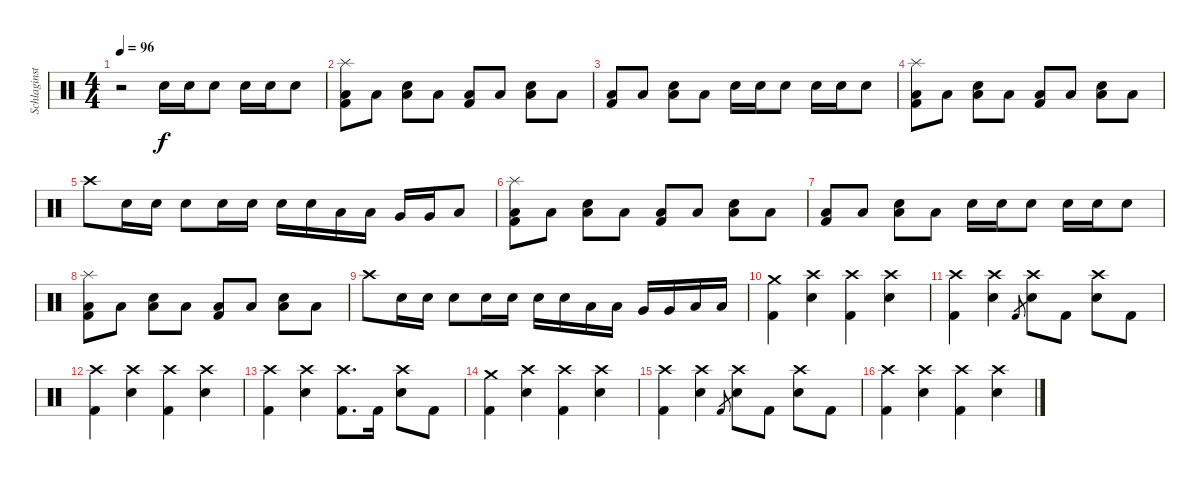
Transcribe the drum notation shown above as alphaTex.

\track ("Schlaginstrumente - Auswahl" "Schlaginst") {instrument percussion}
\staff {score}
\articulation defaults
\ts (4 4)
\tempo 96
\clef neutral
\ks c
r.2{dy f} "Electric Snare (hit)".16 "Electric Snare (hit)".16 "Electric Snare (hit)".8 "Electric Snare (hit)".16 "Electric Snare (hit)".16 "Electric Snare (hit)".8 |
("Splash (hit)" "Low Floor Tom (hit)" "Kick (hit) 2").8 "Low Floor Tom (hit)".8 ("Low Floor Tom (hit)" "Electric Snare (hit)").8 "Low Floor Tom (hit)".8 ("Low Floor Tom (hit)" "Kick (hit) 2").8 "Low Floor Tom (hit)".8 ("Low Floor Tom (hit)" "Electric Snare (hit)").8 "Low Floor Tom (hit)".8 |
("Low Floor Tom (hit)" "Kick (hit) 2").8 "Low Floor Tom (hit)".8 ("Low Floor Tom (hit)" "Electric Snare (hit)").8 "Low Floor Tom (hit)".8 "Electric Snare (hit)".16 "Electric Snare (hit)".16 "Electric Snare (hit)".8 "Electric Snare (hit)".16 "Electric Snare (hit)".16 "Electric Snare (hit)".8 |
("Splash (hit)" "Low Floor Tom (hit)" "Kick (hit) 2").8 "Low Floor Tom (hit)".8 ("Low Floor Tom (hit)" "Electric Snare (hit)").8 "Low Floor Tom (hit)".8 ("Low Floor Tom (hit)" "Kick (hit) 2").8 "Low Floor Tom (hit)".8 ("Low Floor Tom (hit)" "Electric Snare (hit)").8 "Low Floor Tom (hit)".8 |
"Crash high (hit)".8 "Electric Snare (hit)".16 "Electric Snare (hit)".16 "Electric Snare (hit)".8 "Electric Snare (hit)".16 "Electric Snare (hit)".16 "Electric Snare (hit)".16 "Electric Snare (hit)".16 "Low Tom (hit)".16 "Low Tom (hit)".16 "Very Low Tom (hit)".16 "Very Low Tom (hit)".16 "Low Floor Tom (hit)".8 |
("Splash (hit)" "Low Floor Tom (hit)" "Kick (hit) 2").8 "Low Floor Tom (hit)".8 ("Low Floor Tom (hit)" "Electric Snare (hit)").8 "Low Floor Tom (hit)".8 ("Low Floor Tom (hit)" "Kick (hit) 2").8 "Low Floor Tom (hit)".8 ("Low Floor Tom (hit)" "Electric Snare (hit)").8 "Low Floor Tom (hit)".8 |
("Low Floor Tom (hit)" "Kick (hit) 2").8 "Low Floor Tom (hit)".8 ("Low Floor Tom (hit)" "Electric Snare (hit)").8 "Low Floor Tom (hit)".8 "Electric Snare (hit)".16 "Electric Snare (hit)".16 "Electric Snare (hit)".8 "Electric Snare (hit)".16 "Electric Snare (hit)".16 "Electric Snare (hit)".8 |
("Splash (hit)" "Low Floor Tom (hit)" "Kick (hit) 2").8 "Low Floor Tom (hit)".8 ("Low Floor Tom (hit)" "Electric Snare (hit)").8 "Low Floor Tom (hit)".8 ("Low Floor Tom (hit)" "Kick (hit) 2").8 "Low Floor Tom (hit)".8 ("Low Floor Tom (hit)" "Electric Snare (hit)").8 "Low Floor Tom (hit)".8 |
"Crash high (hit)".8 "Electric Snare (hit)".16 "Electric Snare (hit)".16 "Electric Snare (hit)".8 "Electric Snare (hit)".16 "Electric Snare (hit)".16 "Electric Snare (hit)".16 "Electric Snare (hit)".16 "Low Tom (hit)".16 "Low Tom (hit)".16 "Very Low Tom (hit)".16 "Very Low Tom (hit)".16 "Low Floor Tom (hit)".16 "Low Floor Tom (hit)".16 |
("Crash medium (hit)" "Kick (hit) 2").4 ("Crash high (hit)" "Electric Snare (hit)").4 ("Crash high (hit)" "Kick (hit) 2").4 ("Crash high (hit)" "Electric Snare (hit)").4 |
("Crash high (hit)" "Kick (hit) 2").4 ("Crash high (hit)" "Electric Snare (hit)").4 "Kick (hit) 2".8{gr} ("Crash high (hit)" "Electric Snare (hit)").8 "Kick (hit) 2".8 ("Crash high (hit)" "Electric Snare (hit)").8 "Kick (hit) 2".8 |
("Crash high (hit)" "Kick (hit) 2").4 ("Crash high (hit)" "Electric Snare (hit)").4 ("Crash high (hit)" "Kick (hit) 2").4 ("Crash high (hit)" "Electric Snare (hit)").4 |
("Crash high (hit)" "Kick (hit) 2").4 ("Crash high (hit)" "Electric Snare (hit)").4 ("Crash high (hit)" "Kick (hit) 2").8{d} "Kick (hit) 2".16 ("Crash high (hit)" "Electric Snare (hit)").8 "Kick (hit) 2".8 |
("Crash medium (hit)" "Kick (hit) 2").4 ("Crash high (hit)" "Electric Snare (hit)").4 ("Crash high (hit)" "Kick (hit) 2").4 ("Crash high (hit)" "Electric Snare (hit)").4 |
("Crash high (hit)" "Kick (hit) 2").4 ("Crash high (hit)" "Electric Snare (hit)").4 "Kick (hit) 2".8{gr} ("Crash high (hit)" "Electric Snare (hit)").8 "Kick (hit) 2".8 ("Crash high (hit)" "Electric Snare (hit)").8 "Kick (hit) 2".8 |
("Crash high (hit)" "Kick (hit) 2").4 ("Crash high (hit)" "Electric Snare (hit)").4 ("Crash high (hit)" "Kick (hit) 2").4 ("Crash high (hit)" "Electric Snare (hit)").4
